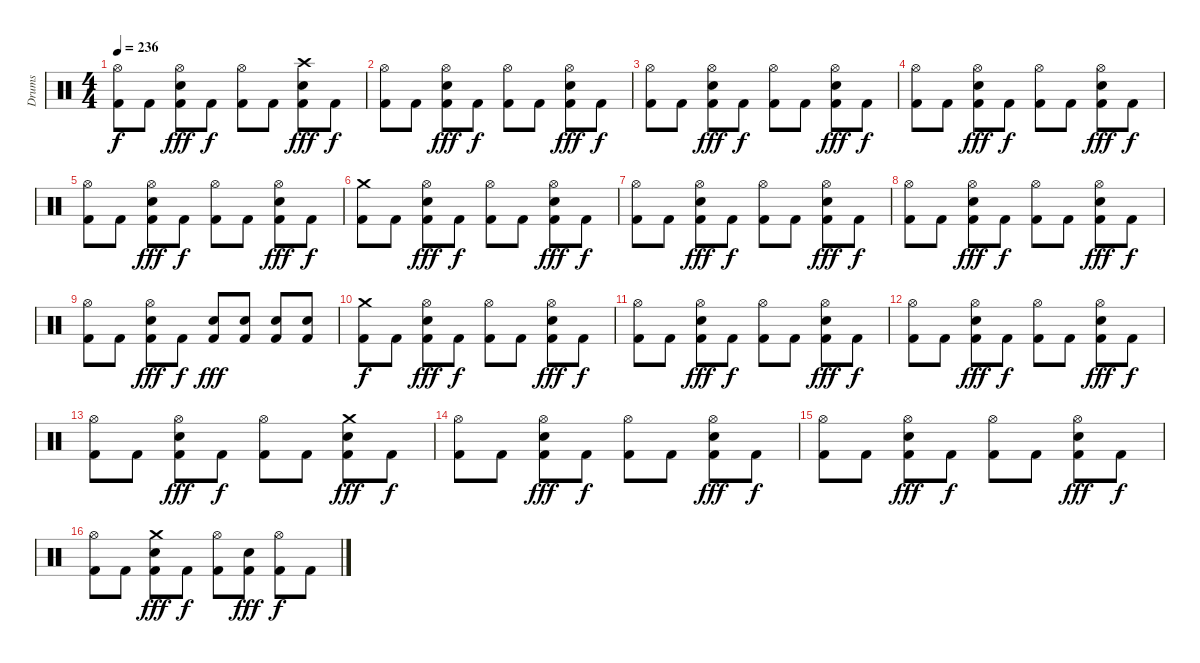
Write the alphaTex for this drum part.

\track ("Drums" "Drums") {instrument percussion}
\staff {score}
\articulation defaults
\ts (4 4)
\tempo 236
\clef neutral
\ks c
("Hi-Hat (open)" "Kick (hit) 2").8{dy f} "Kick (hit) 2".8 ("Hi-Hat (open)" "Kick (hit) 2" "Electric Snare (hit)").8{dy fff} "Kick (hit) 2".8{dy f} ("Hi-Hat (open)" "Kick (hit) 2").8 "Kick (hit) 2".8 ("Crash high (hit)" "Kick (hit) 2" "Electric Snare (hit)").8{dy fff} "Kick (hit) 2".8{dy f} |
("Hi-Hat (open)" "Kick (hit) 2").8 "Kick (hit) 2".8 ("Hi-Hat (open)" "Kick (hit) 2" "Electric Snare (hit)").8{dy fff} "Kick (hit) 2".8{dy f} ("Hi-Hat (open)" "Kick (hit) 2").8 "Kick (hit) 2".8 ("Hi-Hat (open)" "Kick (hit) 2" "Electric Snare (hit)").8{dy fff} "Kick (hit) 2".8{dy f} |
("Hi-Hat (open)" "Kick (hit) 2").8 "Kick (hit) 2".8 ("Hi-Hat (open)" "Kick (hit) 2" "Electric Snare (hit)").8{dy fff} "Kick (hit) 2".8{dy f} ("Hi-Hat (open)" "Kick (hit) 2").8 "Kick (hit) 2".8 ("Hi-Hat (open)" "Kick (hit) 2" "Electric Snare (hit)").8{dy fff} "Kick (hit) 2".8{dy f} |
("Hi-Hat (open)" "Kick (hit) 2").8 "Kick (hit) 2".8 ("Hi-Hat (open)" "Kick (hit) 2" "Electric Snare (hit)").8{dy fff} "Kick (hit) 2".8{dy f} ("Hi-Hat (open)" "Kick (hit) 2").8 "Kick (hit) 2".8 ("Hi-Hat (open)" "Kick (hit) 2" "Electric Snare (hit)").8{dy fff} "Kick (hit) 2".8{dy f} |
("Hi-Hat (open)" "Kick (hit) 2").8 "Kick (hit) 2".8 ("Hi-Hat (open)" "Kick (hit) 2" "Electric Snare (hit)").8{dy fff} "Kick (hit) 2".8{dy f} ("Hi-Hat (open)" "Kick (hit) 2").8 "Kick (hit) 2".8 ("Hi-Hat (open)" "Kick (hit) 2" "Electric Snare (hit)").8{dy fff} "Kick (hit) 2".8{dy f} |
("Crash medium (hit)" "Kick (hit) 2").8 "Kick (hit) 2".8 ("Hi-Hat (open)" "Kick (hit) 2" "Electric Snare (hit)").8{dy fff} "Kick (hit) 2".8{dy f} ("Hi-Hat (open)" "Kick (hit) 2").8 "Kick (hit) 2".8 ("Hi-Hat (open)" "Kick (hit) 2" "Electric Snare (hit)").8{dy fff} "Kick (hit) 2".8{dy f} |
("Hi-Hat (open)" "Kick (hit) 2").8 "Kick (hit) 2".8 ("Hi-Hat (open)" "Kick (hit) 2" "Electric Snare (hit)").8{dy fff} "Kick (hit) 2".8{dy f} ("Hi-Hat (open)" "Kick (hit) 2").8 "Kick (hit) 2".8 ("Hi-Hat (open)" "Kick (hit) 2" "Electric Snare (hit)").8{dy fff} "Kick (hit) 2".8{dy f} |
("Hi-Hat (open)" "Kick (hit) 2").8 "Kick (hit) 2".8 ("Hi-Hat (open)" "Kick (hit) 2" "Electric Snare (hit)").8{dy fff} "Kick (hit) 2".8{dy f} ("Hi-Hat (open)" "Kick (hit) 2").8 "Kick (hit) 2".8 ("Hi-Hat (open)" "Kick (hit) 2" "Electric Snare (hit)").8{dy fff} "Kick (hit) 2".8{dy f} |
("Hi-Hat (open)" "Kick (hit) 2").8 "Kick (hit) 2".8 ("Hi-Hat (open)" "Kick (hit) 2" "Electric Snare (hit)").8{dy fff} "Kick (hit) 2".8{dy f} ("Kick (hit) 2" "Electric Snare (hit)").8{dy fff} ("Kick (hit) 2" "Electric Snare (hit)").8 ("Kick (hit) 2" "Electric Snare (hit)").8 ("Kick (hit) 2" "Electric Snare (hit)").8 |
("Crash medium (hit)" "Kick (hit) 2").8{dy f} "Kick (hit) 2".8 ("Hi-Hat (open)" "Kick (hit) 2" "Electric Snare (hit)").8{dy fff} "Kick (hit) 2".8{dy f} ("Hi-Hat (open)" "Kick (hit) 2").8 "Kick (hit) 2".8 ("Hi-Hat (open)" "Kick (hit) 2" "Electric Snare (hit)").8{dy fff} "Kick (hit) 2".8{dy f} |
("Hi-Hat (open)" "Kick (hit) 2").8 "Kick (hit) 2".8 ("Hi-Hat (open)" "Kick (hit) 2" "Electric Snare (hit)").8{dy fff} "Kick (hit) 2".8{dy f} ("Hi-Hat (open)" "Kick (hit) 2").8 "Kick (hit) 2".8 ("Hi-Hat (open)" "Kick (hit) 2" "Electric Snare (hit)").8{dy fff} "Kick (hit) 2".8{dy f} |
("Hi-Hat (open)" "Kick (hit) 2").8 "Kick (hit) 2".8 ("Hi-Hat (open)" "Kick (hit) 2" "Electric Snare (hit)").8{dy fff} "Kick (hit) 2".8{dy f} ("Hi-Hat (open)" "Kick (hit) 2").8 "Kick (hit) 2".8 ("Hi-Hat (open)" "Kick (hit) 2" "Electric Snare (hit)").8{dy fff} "Kick (hit) 2".8{dy f} |
("Hi-Hat (open)" "Kick (hit) 2").8 "Kick (hit) 2".8 ("Hi-Hat (open)" "Kick (hit) 2" "Electric Snare (hit)").8{dy fff} "Kick (hit) 2".8{dy f} ("Hi-Hat (open)" "Kick (hit) 2").8 "Kick (hit) 2".8 ("Crash medium (hit)" "Kick (hit) 2" "Electric Snare (hit)").8{dy fff} "Kick (hit) 2".8{dy f} |
("Hi-Hat (open)" "Kick (hit) 2").8 "Kick (hit) 2".8 ("Hi-Hat (open)" "Kick (hit) 2" "Electric Snare (hit)").8{dy fff} "Kick (hit) 2".8{dy f} ("Hi-Hat (open)" "Kick (hit) 2").8 "Kick (hit) 2".8 ("Hi-Hat (open)" "Kick (hit) 2" "Electric Snare (hit)").8{dy fff} "Kick (hit) 2".8{dy f} |
("Hi-Hat (open)" "Kick (hit) 2").8 "Kick (hit) 2".8 ("Hi-Hat (open)" "Kick (hit) 2" "Electric Snare (hit)").8{dy fff} "Kick (hit) 2".8{dy f} ("Hi-Hat (open)" "Kick (hit) 2").8 "Kick (hit) 2".8 ("Hi-Hat (open)" "Kick (hit) 2" "Electric Snare (hit)").8{dy fff} "Kick (hit) 2".8{dy f} |
("Hi-Hat (open)" "Kick (hit) 2").8 "Kick (hit) 2".8 ("Crash medium (hit)" "Kick (hit) 2" "Electric Snare (hit)").8{dy fff} "Kick (hit) 2".8{dy f} ("Hi-Hat (open)" "Kick (hit) 2").8 ("Kick (hit) 2" "Electric Snare (hit)").8{dy fff} ("Hi-Hat (open)" "Kick (hit) 2").8{dy f} "Kick (hit) 2".8
